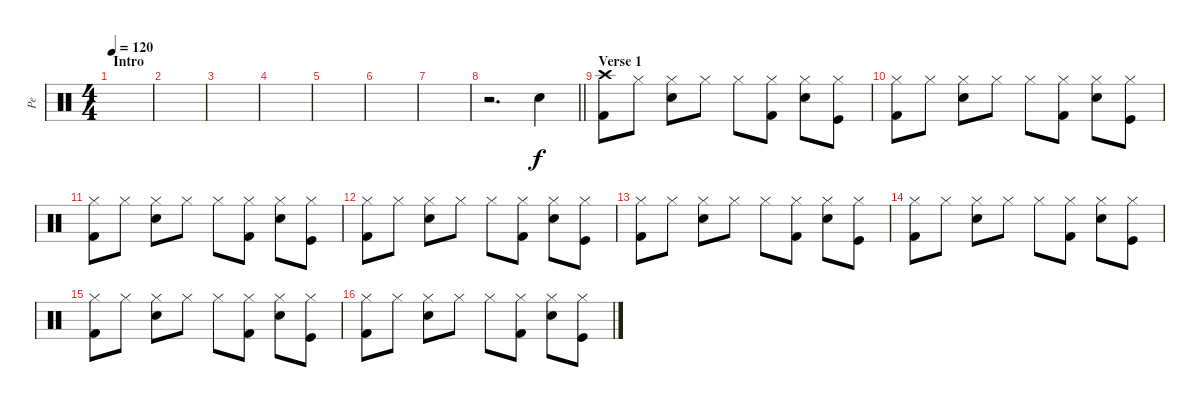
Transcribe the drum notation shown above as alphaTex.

\track ("Pe" "Pe") {instrument percussion}
\staff {score}
\articulation defaults
\ts (4 4)
\section ("" "Intro")
\tempo 120
\clef neutral
\ks c
|
|
|
|
|
|
|
\barLineRight lightlight
r.2{d} "Snare (hit) 2".4 |
\section ("" "Verse 1")
("Kick (hit) 2" "Crash high (hit)").8 "Hi-Hat (closed)".8 ("Snare (hit) 2" "Hi-Hat (closed)").8 "Hi-Hat (closed)".8 "Hi-Hat (closed)".8 ("Kick (hit) 2" "Hi-Hat (closed)").8 ("Snare (hit) 2" "Hi-Hat (closed)").8 ("Kick (hit)" "Hi-Hat (closed)").8 |
("Kick (hit) 2" "Hi-Hat (closed)").8 "Hi-Hat (closed)".8 ("Snare (hit) 2" "Hi-Hat (closed)").8 "Hi-Hat (closed)".8 "Hi-Hat (closed)".8 ("Kick (hit) 2" "Hi-Hat (closed)").8 ("Snare (hit) 2" "Hi-Hat (closed)").8 ("Kick (hit)" "Hi-Hat (closed)").8 |
("Kick (hit) 2" "Hi-Hat (closed)").8 "Hi-Hat (closed)".8 ("Snare (hit) 2" "Hi-Hat (closed)").8 "Hi-Hat (closed)".8 "Hi-Hat (closed)".8 ("Kick (hit) 2" "Hi-Hat (closed)").8 ("Snare (hit) 2" "Hi-Hat (closed)").8 ("Kick (hit)" "Hi-Hat (closed)").8 |
("Kick (hit) 2" "Hi-Hat (closed)").8 "Hi-Hat (closed)".8 ("Snare (hit) 2" "Hi-Hat (closed)").8 "Hi-Hat (closed)".8 "Hi-Hat (closed)".8 ("Kick (hit) 2" "Hi-Hat (closed)").8 ("Snare (hit) 2" "Hi-Hat (closed)").8 ("Kick (hit)" "Hi-Hat (closed)").8 |
("Kick (hit) 2" "Hi-Hat (closed)").8 "Hi-Hat (closed)".8 ("Snare (hit) 2" "Hi-Hat (closed)").8 "Hi-Hat (closed)".8 "Hi-Hat (closed)".8 ("Kick (hit) 2" "Hi-Hat (closed)").8 ("Snare (hit) 2" "Hi-Hat (closed)").8 ("Kick (hit)" "Hi-Hat (closed)").8 |
("Kick (hit) 2" "Hi-Hat (closed)").8 "Hi-Hat (closed)".8 ("Snare (hit) 2" "Hi-Hat (closed)").8 "Hi-Hat (closed)".8 "Hi-Hat (closed)".8 ("Kick (hit) 2" "Hi-Hat (closed)").8 ("Snare (hit) 2" "Hi-Hat (closed)").8 ("Kick (hit)" "Hi-Hat (closed)").8 |
("Kick (hit) 2" "Hi-Hat (closed)").8 "Hi-Hat (closed)".8 ("Snare (hit) 2" "Hi-Hat (closed)").8 "Hi-Hat (closed)".8 "Hi-Hat (closed)".8 ("Kick (hit) 2" "Hi-Hat (closed)").8 ("Snare (hit) 2" "Hi-Hat (closed)").8 ("Kick (hit)" "Hi-Hat (closed)").8 |
("Kick (hit) 2" "Hi-Hat (closed)").8 "Hi-Hat (closed)".8 ("Snare (hit) 2" "Hi-Hat (closed)").8 "Hi-Hat (closed)".8 "Hi-Hat (closed)".8 ("Kick (hit) 2" "Hi-Hat (closed)").8 ("Snare (hit) 2" "Hi-Hat (closed)").8 ("Kick (hit)" "Hi-Hat (closed)").8
